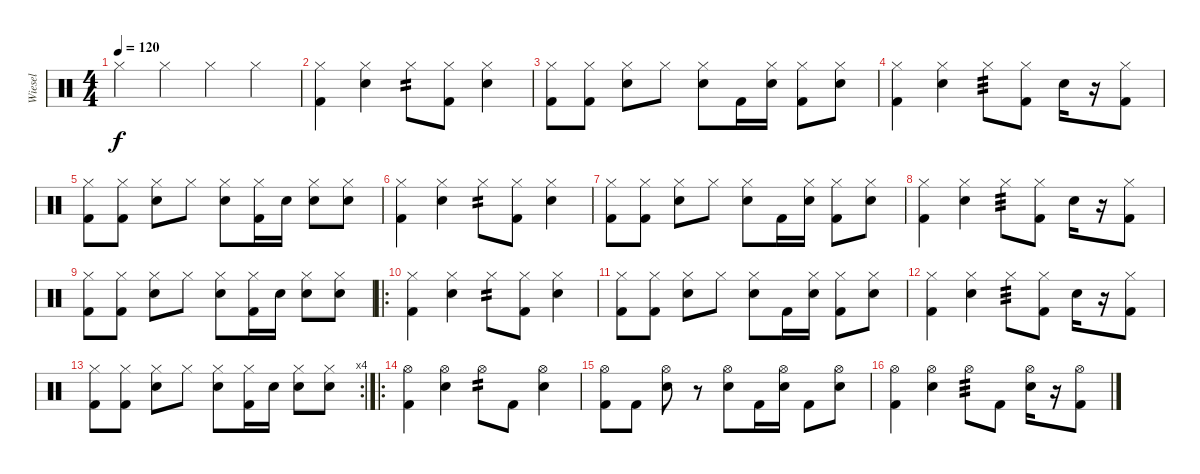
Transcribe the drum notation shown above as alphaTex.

\track ("Wiesel" "Wiesel") {instrument percussion}
\staff {score}
\articulation defaults
\ts (4 4)
\tempo 120
\clef neutral
\ks c "Hi-Hat (closed)".4{dy f} "Hi-Hat (closed)".4 "Hi-Hat (closed)".4 "Hi-Hat (closed)".4
|
("Kick (hit) 2" "Hi-Hat (closed)").4 ("Snare (hit) 2" "Hi-Hat (closed)").4 "Hi-Hat (closed)".8{tp 2} ("Kick (hit) 2" "Hi-Hat (closed)").8 ("Snare (hit) 2" "Hi-Hat (closed)").4 |
("Kick (hit) 2" "Hi-Hat (closed)").8 ("Kick (hit) 2" "Hi-Hat (closed)").8 ("Snare (hit) 2" "Hi-Hat (closed)").8 "Hi-Hat (closed)".8 ("Snare (hit) 2" "Hi-Hat (closed)").8 "Kick (hit) 2".16 ("Snare (hit) 2" "Hi-Hat (closed)").16 ("Kick (hit) 2" "Hi-Hat (closed)").8 ("Snare (hit) 2" "Hi-Hat (closed)").8 |
("Kick (hit) 2" "Hi-Hat (closed)").4 ("Snare (hit) 2" "Hi-Hat (closed)").4 "Hi-Hat (closed)".8{tp 3} ("Kick (hit) 2" "Hi-Hat (closed)").8 "Snare (hit) 2".16 r.16 ("Kick (hit) 2" "Hi-Hat (closed)").8 |
("Kick (hit) 2" "Hi-Hat (closed)").8 ("Kick (hit) 2" "Hi-Hat (closed)").8 ("Snare (hit) 2" "Hi-Hat (closed)").8 "Hi-Hat (closed)".8 ("Snare (hit) 2" "Hi-Hat (closed)").8 ("Kick (hit) 2" "Hi-Hat (closed)").16 "Snare (hit) 2".16 ("Snare (hit) 2" "Hi-Hat (closed)").8 ("Snare (hit) 2" "Hi-Hat (closed)").8 |
("Kick (hit) 2" "Hi-Hat (closed)").4 ("Snare (hit) 2" "Hi-Hat (closed)").4 "Hi-Hat (closed)".8{tp 2} ("Kick (hit) 2" "Hi-Hat (closed)").8 ("Snare (hit) 2" "Hi-Hat (closed)").4 |
("Kick (hit) 2" "Hi-Hat (closed)").8 ("Kick (hit) 2" "Hi-Hat (closed)").8 ("Snare (hit) 2" "Hi-Hat (closed)").8 "Hi-Hat (closed)".8 ("Snare (hit) 2" "Hi-Hat (closed)").8 "Kick (hit) 2".16 ("Snare (hit) 2" "Hi-Hat (closed)").16 ("Kick (hit) 2" "Hi-Hat (closed)").8 ("Snare (hit) 2" "Hi-Hat (closed)").8 |
("Kick (hit) 2" "Hi-Hat (closed)").4 ("Snare (hit) 2" "Hi-Hat (closed)").4 "Hi-Hat (closed)".8{tp 3} ("Kick (hit) 2" "Hi-Hat (closed)").8 "Snare (hit) 2".16 r.16 ("Kick (hit) 2" "Hi-Hat (closed)").8 |
("Kick (hit) 2" "Hi-Hat (closed)").8 ("Kick (hit) 2" "Hi-Hat (closed)").8 ("Snare (hit) 2" "Hi-Hat (closed)").8 "Hi-Hat (closed)".8 ("Snare (hit) 2" "Hi-Hat (closed)").8 ("Kick (hit) 2" "Hi-Hat (closed)").16 "Snare (hit) 2".16 ("Snare (hit) 2" "Hi-Hat (closed)").8 ("Snare (hit) 2" "Hi-Hat (closed)").8 |
\ro
("Kick (hit) 2" "Hi-Hat (closed)").4 ("Snare (hit) 2" "Hi-Hat (closed)").4 "Hi-Hat (closed)".8{tp 2} ("Kick (hit) 2" "Hi-Hat (closed)").8 ("Snare (hit) 2" "Hi-Hat (closed)").4 |
("Kick (hit) 2" "Hi-Hat (closed)").8 ("Kick (hit) 2" "Hi-Hat (closed)").8 ("Snare (hit) 2" "Hi-Hat (closed)").8 "Hi-Hat (closed)".8 ("Snare (hit) 2" "Hi-Hat (closed)").8 "Kick (hit) 2".16 ("Snare (hit) 2" "Hi-Hat (closed)").16 ("Kick (hit) 2" "Hi-Hat (closed)").8 ("Snare (hit) 2" "Hi-Hat (closed)").8 |
("Kick (hit) 2" "Hi-Hat (closed)").4 ("Snare (hit) 2" "Hi-Hat (closed)").4 "Hi-Hat (closed)".8{tp 3} ("Kick (hit) 2" "Hi-Hat (closed)").8 "Snare (hit) 2".16 r.16 ("Kick (hit) 2" "Hi-Hat (closed)").8 |
\rc 4
("Kick (hit) 2" "Hi-Hat (closed)").8 ("Kick (hit) 2" "Hi-Hat (closed)").8 ("Snare (hit) 2" "Hi-Hat (closed)").8 "Hi-Hat (closed)".8 ("Snare (hit) 2" "Hi-Hat (closed)").8 ("Kick (hit) 2" "Hi-Hat (closed)").16 "Snare (hit) 2".16 ("Snare (hit) 2" "Hi-Hat (closed)").8 ("Snare (hit) 2" "Hi-Hat (closed)").8 |
\ro
("Kick (hit) 2" "Hi-Hat (open)").4 ("Snare (hit) 2" "Hi-Hat (open)").4 "Hi-Hat (open)".8{tp 2} "Kick (hit) 2".8 ("Snare (hit) 2" "Hi-Hat (open)").4 |
("Kick (hit) 2" "Hi-Hat (open)").8 "Kick (hit) 2".8 ("Snare (hit) 2" "Hi-Hat (open)").8 r.8 ("Snare (hit) 2" "Hi-Hat (open)").8 "Kick (hit) 2".16 ("Snare (hit) 2" "Hi-Hat (open)").16 "Kick (hit) 2".8 ("Snare (hit) 2" "Hi-Hat (open)").8 |
("Kick (hit) 2" "Hi-Hat (open)").4 ("Snare (hit) 2" "Hi-Hat (open)").4 "Hi-Hat (open)".8{tp 3} "Kick (hit) 2".8 ("Snare (hit) 2" "Hi-Hat (open)").16 r.16 ("Kick (hit) 2" "Hi-Hat (open)").8
